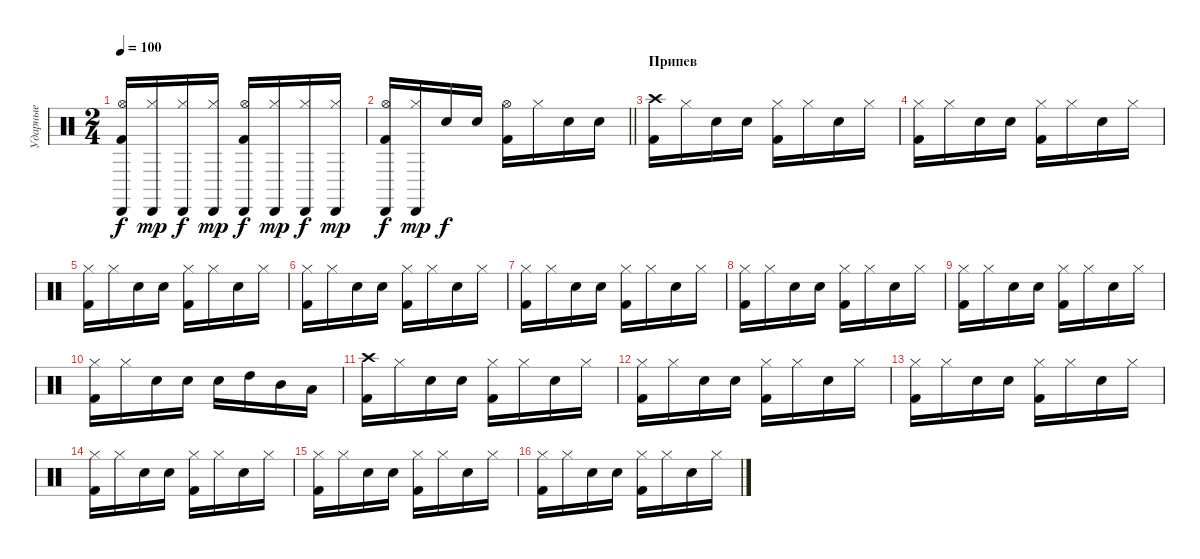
\track ("Ударные" "Ударные") {instrument percussion}
\staff {score}
\articulation defaults
\ts (2 4)
\tempo 100
\clef neutral
\ks c
("Kick (hit) 2" "Cabasa (hit)" "Hi-Hat (open)").16{dy f} ("Cabasa (hit)" "Hi-Hat (closed)").16{dy mp} ("Hi-Hat (closed)" "Cabasa (hit)").16{dy f} ("Cabasa (hit)" "Hi-Hat (closed)").16{dy mp} ("Hi-Hat (open)" "Cabasa (hit)" "Kick (hit) 2").16{dy f} ("Hi-Hat (closed)" "Cabasa (hit)").16{dy mp} ("Hi-Hat (closed)" "Cabasa (hit)").16{dy f} ("Hi-Hat (closed)" "Cabasa (hit)").16{dy mp} |
\barLineRight lightlight
("Kick (hit) 2" "Cabasa (hit)" "Hi-Hat (open)").16{dy f} ("Cabasa (hit)" "Hi-Hat (closed)").16{dy mp} "Electric Snare (hit)".16{dy f} "Electric Snare (hit)".16 ("Kick (hit) 2" "Hi-Hat (open)").16 "Hi-Hat (closed)".16 "Electric Snare (hit)".16 "Electric Snare (hit)".16 |
\section ("" "Припев")
("Crash high (hit)" "Kick (hit) 2").16 "Hi-Hat (closed)".16 "Electric Snare (hit)".16 "Electric Snare (hit)".16 ("Kick (hit) 2" "Hi-Hat (closed)").16 "Hi-Hat (closed)".16 "Electric Snare (hit)".16 "Hi-Hat (closed)".16 |
("Hi-Hat (closed)" "Kick (hit) 2").16 "Hi-Hat (closed)".16 "Electric Snare (hit)".16 "Electric Snare (hit)".16 ("Kick (hit) 2" "Hi-Hat (closed)").16 "Hi-Hat (closed)".16 "Electric Snare (hit)".16 "Hi-Hat (closed)".16 |
("Hi-Hat (closed)" "Kick (hit) 2").16 "Hi-Hat (closed)".16 "Electric Snare (hit)".16 "Electric Snare (hit)".16 ("Kick (hit) 2" "Hi-Hat (closed)").16 "Hi-Hat (closed)".16 "Electric Snare (hit)".16 "Hi-Hat (closed)".16 |
("Hi-Hat (closed)" "Kick (hit) 2").16 "Hi-Hat (closed)".16 "Electric Snare (hit)".16 "Electric Snare (hit)".16 ("Kick (hit) 2" "Hi-Hat (closed)").16 "Hi-Hat (closed)".16 "Electric Snare (hit)".16 "Hi-Hat (closed)".16 |
("Hi-Hat (closed)" "Kick (hit) 2").16 "Hi-Hat (closed)".16 "Electric Snare (hit)".16 "Electric Snare (hit)".16 ("Kick (hit) 2" "Hi-Hat (closed)").16 "Hi-Hat (closed)".16 "Electric Snare (hit)".16 "Hi-Hat (closed)".16 |
("Hi-Hat (closed)" "Kick (hit) 2").16 "Hi-Hat (closed)".16 "Electric Snare (hit)".16 "Electric Snare (hit)".16 ("Kick (hit) 2" "Hi-Hat (closed)").16 "Hi-Hat (closed)".16 "Electric Snare (hit)".16 "Hi-Hat (closed)".16 |
("Hi-Hat (closed)" "Kick (hit) 2").16 "Hi-Hat (closed)".16 "Electric Snare (hit)".16 "Electric Snare (hit)".16 ("Kick (hit) 2" "Hi-Hat (closed)").16 "Hi-Hat (closed)".16 "Electric Snare (hit)".16 "Hi-Hat (closed)".16 |
("Hi-Hat (closed)" "Kick (hit) 2").16 "Hi-Hat (closed)".16 "Electric Snare (hit)".16 "Electric Snare (hit)".16 "Electric Snare (hit)".16 "High Tom (hit)".16 "Mid Tom (hit)".16 "Low Tom (hit)".16 |
("Crash high (hit)" "Kick (hit) 2").16 "Hi-Hat (closed)".16 "Electric Snare (hit)".16 "Electric Snare (hit)".16 ("Kick (hit) 2" "Hi-Hat (closed)").16 "Hi-Hat (closed)".16 "Electric Snare (hit)".16 "Hi-Hat (closed)".16 |
("Hi-Hat (closed)" "Kick (hit) 2").16 "Hi-Hat (closed)".16 "Electric Snare (hit)".16 "Electric Snare (hit)".16 ("Kick (hit) 2" "Hi-Hat (closed)").16 "Hi-Hat (closed)".16 "Electric Snare (hit)".16 "Hi-Hat (closed)".16 |
("Hi-Hat (closed)" "Kick (hit) 2").16 "Hi-Hat (closed)".16 "Electric Snare (hit)".16 "Electric Snare (hit)".16 ("Kick (hit) 2" "Hi-Hat (closed)").16 "Hi-Hat (closed)".16 "Electric Snare (hit)".16 "Hi-Hat (closed)".16 |
("Hi-Hat (closed)" "Kick (hit) 2").16 "Hi-Hat (closed)".16 "Electric Snare (hit)".16 "Electric Snare (hit)".16 ("Kick (hit) 2" "Hi-Hat (closed)").16 "Hi-Hat (closed)".16 "Electric Snare (hit)".16 "Hi-Hat (closed)".16 |
("Hi-Hat (closed)" "Kick (hit) 2").16 "Hi-Hat (closed)".16 "Electric Snare (hit)".16 "Electric Snare (hit)".16 ("Kick (hit) 2" "Hi-Hat (closed)").16 "Hi-Hat (closed)".16 "Electric Snare (hit)".16 "Hi-Hat (closed)".16 |
("Hi-Hat (closed)" "Kick (hit) 2").16 "Hi-Hat (closed)".16 "Electric Snare (hit)".16 "Electric Snare (hit)".16 ("Kick (hit) 2" "Hi-Hat (closed)").16 "Hi-Hat (closed)".16 "Electric Snare (hit)".16 "Hi-Hat (closed)".16
